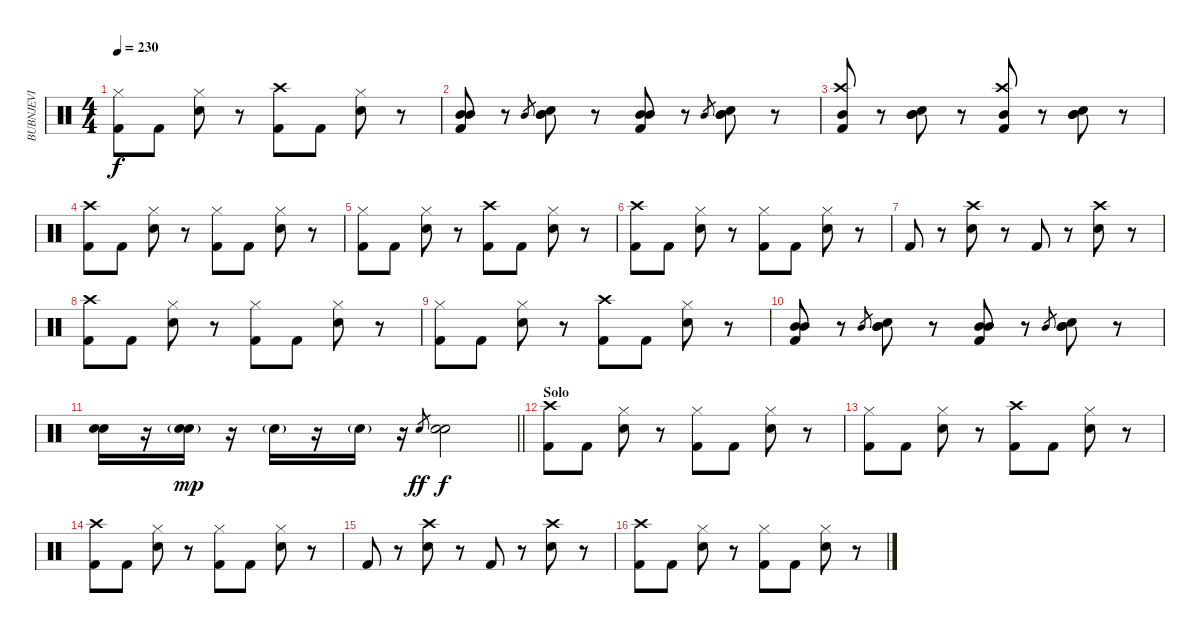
\track ("BUBNJEVI" "BUBNJEVI") {instrument percussion}
\staff {score}
\articulation defaults
\ts (4 4)
\tempo 230
\clef neutral
\ks c
("Hi-Hat (closed)" "Kick (hit) 2").8{dy f} "Kick (hit) 2".8 ("Hi-Hat (closed)" "Snare (hit) 2").8 r.8 ("Crash high (hit)" "Kick (hit) 2").8 "Kick (hit) 2".8 ("Hi-Hat (closed)" "Snare (hit) 2").8 r.8 |
("Mid Tom (hit)" "Mid Tom (hit)" "Kick (hit) 2").8 r.8 "Mid Tom (hit)".8{gr} ("Mid Tom (hit)" "Mid Tom (hit)" "Snare (hit) 2").8 r.8 ("Mid Tom (hit)" "Mid Tom (hit)" "Kick (hit) 2").8 r.8 "Mid Tom (hit)".8{gr} ("Mid Tom (hit)" "Mid Tom (hit)" "Snare (hit) 2").8 r.8 |
("Crash high (hit)" "Mid Tom (hit)" "Kick (hit) 2").8 r.8 ("Mid Tom (hit)" "Mid Tom (hit)" "Snare (hit) 2").8 r.8 ("Crash high (hit)" "Mid Tom (hit)" "Kick (hit) 2").8 r.8 ("Mid Tom (hit)" "Mid Tom (hit)" "Snare (hit) 2").8 r.8 |
("Crash high (hit)" "Kick (hit) 2").8 "Kick (hit) 2".8 ("Hi-Hat (closed)" "Snare (hit) 2").8 r.8 ("Hi-Hat (closed)" "Kick (hit) 2").8 "Kick (hit) 2".8 ("Hi-Hat (closed)" "Snare (hit) 2").8 r.8 |
("Hi-Hat (closed)" "Kick (hit) 2").8 "Kick (hit) 2".8 ("Hi-Hat (closed)" "Snare (hit) 2").8 r.8 ("Crash high (hit)" "Kick (hit) 2").8 "Kick (hit) 2".8 ("Hi-Hat (closed)" "Snare (hit) 2").8 r.8 |
("Crash high (hit)" "Kick (hit) 2").8 "Kick (hit) 2".8 ("Hi-Hat (closed)" "Snare (hit) 2").8 r.8 ("Hi-Hat (closed)" "Kick (hit) 2").8 "Kick (hit) 2".8 ("Hi-Hat (closed)" "Snare (hit) 2").8 r.8 |
"Kick (hit) 2".8 r.8 ("Crash high (hit)" "Snare (hit) 2").8 r.8 "Kick (hit) 2".8 r.8 ("Crash high (hit)" "Snare (hit) 2").8 r.8 |
("Crash high (hit)" "Kick (hit) 2").8 "Kick (hit) 2".8 ("Hi-Hat (closed)" "Snare (hit) 2").8 r.8 ("Hi-Hat (closed)" "Kick (hit) 2").8 "Kick (hit) 2".8 ("Hi-Hat (closed)" "Snare (hit) 2").8 r.8 |
("Hi-Hat (closed)" "Kick (hit) 2").8 "Kick (hit) 2".8 ("Hi-Hat (closed)" "Snare (hit) 2").8 r.8 ("Crash high (hit)" "Kick (hit) 2").8 "Kick (hit) 2".8 ("Hi-Hat (closed)" "Snare (hit) 2").8 r.8 |
("Mid Tom (hit)" "Mid Tom (hit)" "Kick (hit) 2").8 r.8 "Mid Tom (hit)".8{gr} ("Mid Tom (hit)" "Mid Tom (hit)" "Snare (hit) 2").8 r.8 ("Mid Tom (hit)" "Mid Tom (hit)" "Kick (hit) 2").8 r.8 "Mid Tom (hit)".8{gr} ("Mid Tom (hit)" "Mid Tom (hit)" "Snare (hit) 2").8 r.8 |
\barLineRight lightlight
("Snare (hit) 2" "Snare (hit) 2").16 r.16 ("Snare (hit) 2"{g} "Snare (hit) 2"{g}).16{dy mp} r.16 "Snare (hit) 2"{g}.16 r.16 "Snare (hit) 2"{g}.16 r.16 "Snare (hit) 2".8{gr dy ff} ("Snare (hit) 2" "Snare (hit) 2").2{dy f} |
\section ("" "Solo")
("Crash high (hit)" "Kick (hit) 2").8 "Kick (hit) 2".8 ("Hi-Hat (closed)" "Snare (hit) 2").8 r.8 ("Hi-Hat (closed)" "Kick (hit) 2").8 "Kick (hit) 2".8 ("Hi-Hat (closed)" "Snare (hit) 2").8 r.8 |
("Hi-Hat (closed)" "Kick (hit) 2").8 "Kick (hit) 2".8 ("Hi-Hat (closed)" "Snare (hit) 2").8 r.8 ("Crash high (hit)" "Kick (hit) 2").8 "Kick (hit) 2".8 ("Hi-Hat (closed)" "Snare (hit) 2").8 r.8 |
("Crash high (hit)" "Kick (hit) 2").8 "Kick (hit) 2".8 ("Hi-Hat (closed)" "Snare (hit) 2").8 r.8 ("Hi-Hat (closed)" "Kick (hit) 2").8 "Kick (hit) 2".8 ("Hi-Hat (closed)" "Snare (hit) 2").8 r.8 |
"Kick (hit) 2".8 r.8 ("Crash high (hit)" "Snare (hit) 2").8 r.8 "Kick (hit) 2".8 r.8 ("Crash high (hit)" "Snare (hit) 2").8 r.8 |
("Crash high (hit)" "Kick (hit) 2").8 "Kick (hit) 2".8 ("Hi-Hat (closed)" "Snare (hit) 2").8 r.8 ("Hi-Hat (closed)" "Kick (hit) 2").8 "Kick (hit) 2".8 ("Hi-Hat (closed)" "Snare (hit) 2").8 r.8
